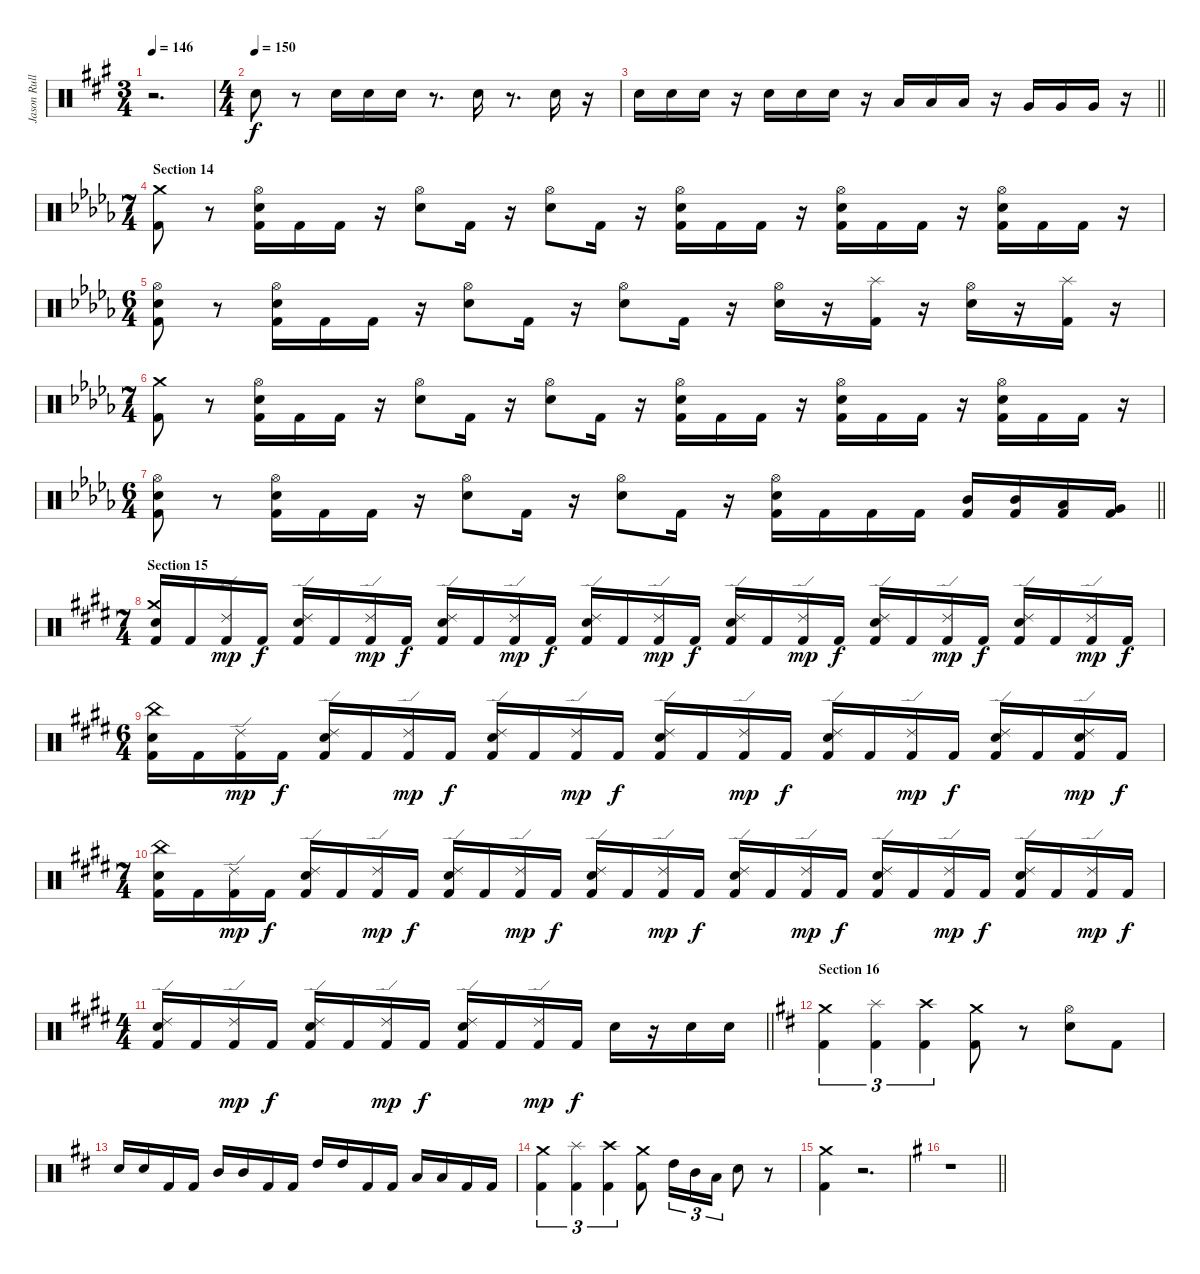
\track ("Jason Rullo (drums)" "Jason Rull") {instrument percussion}
\staff {score}
\articulation defaults
\ts (3 4)
\tempo 146
\clef neutral
\ks f#minor
r.2{d dy f} |
\ts (4 4)
\tempo (150)
"Electric Snare (hit)".8{volume 16} r.8 "Electric Snare (hit)".16 "Electric Snare (hit)".16 "Electric Snare (hit)".16 r.8{d} "Electric Snare (hit)".16 r.8{d} "Electric Snare (hit)".16 r.16 |
\barLineRight lightlight "Electric Snare (hit)".16 "Electric Snare (hit)".16 "Electric Snare (hit)".16
r.16 "Electric Snare (hit)".16 "Electric Snare (hit)".16 "Electric Snare (hit)".16 r.16 "Low Tom (hit)".16 "Low Tom (hit)".16 "Low Tom (hit)".16 r.16 "Very Low Tom (hit)".16 "Very Low Tom (hit)".16 "Very Low Tom (hit)".16 r.16 |
\ts (7 4)
\section ("" "Section 14")
\ks bbminor
("Crash medium (hit)" "Kick (hit) 2").8{volume 16 balance 8} r.8 ("Hi-Hat (open)" "Kick (hit) 2" "Electric Snare (hit)").16 "Kick (hit) 2".16 "Kick (hit) 2".16 r.16 ("Hi-Hat (open)" "Electric Snare (hit)").8 "Kick (hit) 2".16 r.16 ("Hi-Hat (open)" "Electric Snare (hit)").8 "Kick (hit) 2".16 r.16 ("Hi-Hat (open)" "Kick (hit) 2" "Electric Snare (hit)").16 "Kick (hit) 2".16 "Kick (hit) 2".16 r.16 ("Hi-Hat (open)" "Kick (hit) 2" "Electric Snare (hit)").16 "Kick (hit) 2".16 "Kick (hit) 2".16 r.16 ("Hi-Hat (open)" "Kick (hit) 2" "Electric Snare (hit)").16 "Kick (hit) 2".16 "Kick (hit) 2".16 r.16 |
\ts (6 4)
("Kick (hit) 2" "Hi-Hat (open)" "Electric Snare (hit)").8 r.8 ("Hi-Hat (open)" "Kick (hit) 2" "Electric Snare (hit)").16 "Kick (hit) 2".16 "Kick (hit) 2".16 r.16 ("Hi-Hat (open)" "Electric Snare (hit)").8 "Kick (hit) 2".16 r.16 ("Hi-Hat (open)" "Electric Snare (hit)").8 "Kick (hit) 2".16 r.16 ("Hi-Hat (open)" "Electric Snare (hit)").16 r.16 ("Splash (hit)" "Kick (hit) 2").16 r.16 ("Hi-Hat (open)" "Electric Snare (hit)").16 r.16 ("Splash (hit)" "Kick (hit) 2").16 r.16 |
\ts (7 4)
("Crash medium (hit)" "Kick (hit) 2").8{volume 16 balance 8} r.8 ("Hi-Hat (open)" "Kick (hit) 2" "Electric Snare (hit)").16 "Kick (hit) 2".16 "Kick (hit) 2".16 r.16 ("Hi-Hat (open)" "Electric Snare (hit)").8 "Kick (hit) 2".16 r.16 ("Hi-Hat (open)" "Electric Snare (hit)").8 "Kick (hit) 2".16 r.16 ("Hi-Hat (open)" "Kick (hit) 2" "Electric Snare (hit)").16 "Kick (hit) 2".16 "Kick (hit) 2".16 r.16 ("Hi-Hat (open)" "Kick (hit) 2" "Electric Snare (hit)").16 "Kick (hit) 2".16 "Kick (hit) 2".16 r.16 ("Hi-Hat (open)" "Kick (hit) 2" "Electric Snare (hit)").16 "Kick (hit) 2".16 "Kick (hit) 2".16 r.16 |
\ts (6 4)
\barLineRight lightlight
("Kick (hit) 2" "Hi-Hat (open)" "Electric Snare (hit)").8 r.8 ("Hi-Hat (open)" "Kick (hit) 2" "Electric Snare (hit)").16 "Kick (hit) 2".16 "Kick (hit) 2".16 r.16 ("Hi-Hat (open)" "Electric Snare (hit)").8 "Kick (hit) 2".16 r.16 ("Hi-Hat (open)" "Electric Snare (hit)").8 "Kick (hit) 2".16 r.16 ("Hi-Hat (open)" "Kick (hit) 2" "Electric Snare (hit)").16 "Kick (hit) 2".16 "Kick (hit) 2".16 "Kick (hit) 2".16 ("Mid Tom (hit)" "Kick (hit) 2").16 ("Mid Tom (hit)" "Kick (hit) 2").16 ("Low Tom (hit)" "Kick (hit) 2").16 ("Very Low Tom (hit)" "Kick (hit) 2").16 |
\ts (7 4)
\section ("" "Section 15")
\ks c#minor
("Electric Snare (hit)" "Kick (hit) 2" "Crash medium (hit)").16{volume 16 balance 8} "Kick (hit) 2".16 ("Kick (hit) 2" "Ride (edge) 2").16{dy mp} "Kick (hit) 2".16{dy f} ("Electric Snare (hit)" "Kick (hit) 2" "Ride (edge) 2").16 "Kick (hit) 2".16 ("Kick (hit) 2" "Ride (edge) 2").16{dy mp} "Kick (hit) 2".16{dy f} ("Electric Snare (hit)" "Kick (hit) 2" "Ride (edge) 2").16 "Kick (hit) 2".16 ("Kick (hit) 2" "Ride (edge) 2").16{dy mp} "Kick (hit) 2".16{dy f} ("Electric Snare (hit)" "Kick (hit) 2" "Ride (edge) 2").16 "Kick (hit) 2".16 ("Kick (hit) 2" "Ride (edge) 2").16{dy mp} "Kick (hit) 2".16{dy f} ("Electric Snare (hit)" "Kick (hit) 2" "Ride (edge) 2").16 "Kick (hit) 2".16 ("Kick (hit) 2" "Ride (edge) 2").16{dy mp} "Kick (hit) 2".16{dy f} ("Electric Snare (hit)" "Kick (hit) 2" "Ride (edge) 2").16 "Kick (hit) 2".16 ("Kick (hit) 2" "Ride (edge) 2").16{dy mp} "Kick (hit) 2".16{dy f} ("Electric Snare (hit)" "Kick (hit) 2" "Ride (edge) 2").16 "Kick (hit) 2".16 ("Kick (hit) 2" "Ride (edge) 2").16{dy mp} "Kick (hit) 2".16{dy f} |
\ts (6 4)
("China (hit)" "Electric Snare (hit)" "Kick (hit) 2").16 "Kick (hit) 2".16 ("Kick (hit) 2" "Ride (edge) 2").16{dy mp} "Kick (hit) 2".16{dy f} ("Electric Snare (hit)" "Kick (hit) 2" "Ride (edge) 2").16 "Kick (hit) 2".16 ("Kick (hit) 2" "Ride (edge) 2").16{dy mp} "Kick (hit) 2".16{dy f} ("Electric Snare (hit)" "Kick (hit) 2" "Ride (edge) 2").16 "Kick (hit) 2".16 ("Kick (hit) 2" "Ride (edge) 2").16{dy mp} "Kick (hit) 2".16{dy f} ("Electric Snare (hit)" "Kick (hit) 2" "Ride (edge) 2").16 "Kick (hit) 2".16 ("Kick (hit) 2" "Ride (edge) 2").16{dy mp} "Kick (hit) 2".16{dy f} ("Electric Snare (hit)" "Kick (hit) 2" "Ride (edge) 2").16 "Kick (hit) 2".16 ("Kick (hit) 2" "Ride (edge) 2").16{dy mp} "Kick (hit) 2".16{dy f} ("Electric Snare (hit)" "Kick (hit) 2" "Ride (edge) 2").16 "Kick (hit) 2".16 ("Electric Snare (hit)" "Kick (hit) 2" "Ride (edge) 2").16{dy mp} "Kick (hit) 2".16{dy f} |
\ts (7 4)
("China (hit)" "Electric Snare (hit)" "Kick (hit) 2").16{volume 16 balance 8} "Kick (hit) 2".16 ("Kick (hit) 2" "Ride (edge) 2").16{dy mp} "Kick (hit) 2".16{dy f} ("Electric Snare (hit)" "Kick (hit) 2" "Ride (edge) 2").16 "Kick (hit) 2".16 ("Kick (hit) 2" "Ride (edge) 2").16{dy mp} "Kick (hit) 2".16{dy f} ("Electric Snare (hit)" "Kick (hit) 2" "Ride (edge) 2").16 "Kick (hit) 2".16 ("Kick (hit) 2" "Ride (edge) 2").16{dy mp} "Kick (hit) 2".16{dy f} ("Electric Snare (hit)" "Kick (hit) 2" "Ride (edge) 2").16 "Kick (hit) 2".16 ("Kick (hit) 2" "Ride (edge) 2").16{dy mp} "Kick (hit) 2".16{dy f} ("Electric Snare (hit)" "Kick (hit) 2" "Ride (edge) 2").16 "Kick (hit) 2".16 ("Kick (hit) 2" "Ride (edge) 2").16{dy mp} "Kick (hit) 2".16{dy f} ("Electric Snare (hit)" "Kick (hit) 2" "Ride (edge) 2").16 "Kick (hit) 2".16 ("Kick (hit) 2" "Ride (edge) 2").16{dy mp} "Kick (hit) 2".16{dy f} ("Electric Snare (hit)" "Kick (hit) 2" "Ride (edge) 2").16 "Kick (hit) 2".16 ("Kick (hit) 2" "Ride (edge) 2").16{dy mp} "Kick (hit) 2".16{dy f} |
\ts (4 4)
\barLineRight lightlight
("Ride (edge) 2" "Electric Snare (hit)" "Kick (hit) 2").16 "Kick (hit) 2".16 ("Ride (edge) 2" "Kick (hit) 2").16{dy mp} "Kick (hit) 2".16{dy f} ("Ride (edge) 2" "Electric Snare (hit)" "Kick (hit) 2").16 "Kick (hit) 2".16 ("Ride (edge) 2" "Kick (hit) 2").16{dy mp} "Kick (hit) 2".16{dy f} ("Ride (edge) 2" "Kick (hit) 2" "Electric Snare (hit)").16 "Kick (hit) 2".16 ("Ride (edge) 2" "Kick (hit) 2").16{dy mp} "Kick (hit) 2".16{dy f} "Electric Snare (hit)".16 r.16 "Electric Snare (hit)".16 "Electric Snare (hit)".16 |
\section ("" "Section 16")
\ks bminor
("Crash medium (hit)" "Kick (hit) 2").4{tu (3 2)} ("Splash (hit)" "Kick (hit) 2").4{tu (3 2)} ("Crash high (hit)" "Kick (hit) 2").4{tu (3 2)} ("Crash medium (hit)" "Kick (hit) 2").8 r.8 ("Hi-Hat (open)" "Electric Snare (hit)").8 "Kick (hit) 2".8 |
"Electric Snare (hit)".16 "Electric Snare (hit)".16 "Kick (hit) 2".16 "Kick (hit) 2".16 "Mid Tom (hit)".16 "Mid Tom (hit)".16 "Kick (hit) 2".16 "Kick (hit) 2".16 "High Tom (hit)".16 "High Tom (hit)".16 "Kick (hit) 2".16 "Kick (hit) 2".16 "Low Tom (hit)".16 "Low Tom (hit)".16 "Kick (hit) 2".16 "Kick (hit) 2".16 |
("Crash medium (hit)" "Kick (hit) 2").4{tu (3 2)} ("Splash (hit)" "Kick (hit) 2").4{tu (3 2)} ("Crash high (hit)" "Kick (hit) 2").4{tu (3 2)} ("Crash medium (hit)" "Kick (hit) 2").8 "High Tom (hit)".16{tu (3 2)} "Mid Tom (hit)".16{tu (3 2)} "Low Tom (hit)".16{tu (3 2)} "Electric Snare (hit)".8 r.8 |
("Crash medium (hit)" "Kick (hit) 2").4 r.2{d} |
\barLineRight lightlight
\ks eminor
r.1
